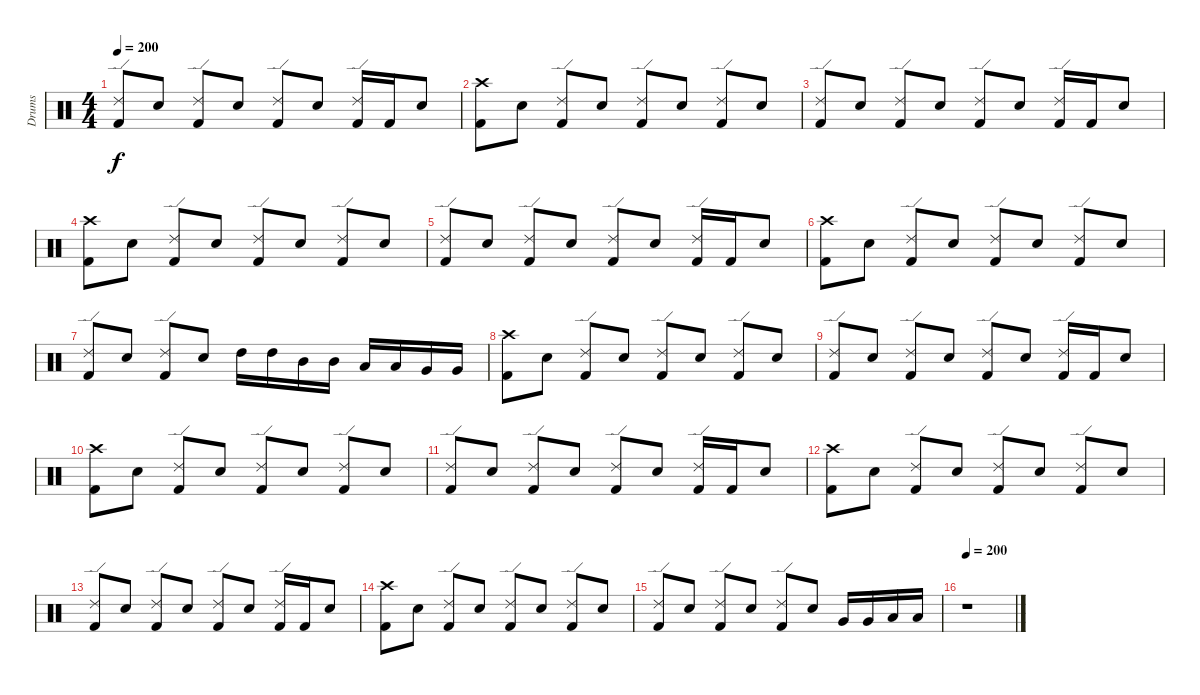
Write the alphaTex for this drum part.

\track ("Drums" "Drums") {instrument percussion}
\staff {score}
\articulation defaults
\ts (4 4)
\tempo 200
\clef neutral
\ks c
("Ride (edge) 2" "Kick (hit) 2").8{dy f} "Electric Snare (hit)".8 ("Ride (edge) 2" "Kick (hit) 2").8 "Electric Snare (hit)".8 ("Ride (edge) 2" "Kick (hit) 2").8 "Electric Snare (hit)".8 ("Ride (edge) 2" "Kick (hit) 2").16 "Kick (hit) 2".16 "Electric Snare (hit)".8 |
("Crash high (hit)" "Kick (hit) 2").8 "Electric Snare (hit)".8 ("Ride (edge) 2" "Kick (hit) 2").8 "Electric Snare (hit)".8 ("Ride (edge) 2" "Kick (hit) 2").8 "Electric Snare (hit)".8 ("Ride (edge) 2" "Kick (hit) 2").8 "Electric Snare (hit)".8 |
("Ride (edge) 2" "Kick (hit) 2").8 "Electric Snare (hit)".8 ("Ride (edge) 2" "Kick (hit) 2").8 "Electric Snare (hit)".8 ("Ride (edge) 2" "Kick (hit) 2").8 "Electric Snare (hit)".8 ("Ride (edge) 2" "Kick (hit) 2").16 "Kick (hit) 2".16 "Electric Snare (hit)".8 |
("Crash high (hit)" "Kick (hit) 2").8 "Electric Snare (hit)".8 ("Ride (edge) 2" "Kick (hit) 2").8 "Electric Snare (hit)".8 ("Ride (edge) 2" "Kick (hit) 2").8 "Electric Snare (hit)".8 ("Ride (edge) 2" "Kick (hit) 2").8 "Electric Snare (hit)".8 |
("Ride (edge) 2" "Kick (hit) 2").8 "Electric Snare (hit)".8 ("Ride (edge) 2" "Kick (hit) 2").8 "Electric Snare (hit)".8 ("Ride (edge) 2" "Kick (hit) 2").8 "Electric Snare (hit)".8 ("Ride (edge) 2" "Kick (hit) 2").16 "Kick (hit) 2".16 "Electric Snare (hit)".8 |
("Crash high (hit)" "Kick (hit) 2").8 "Electric Snare (hit)".8 ("Ride (edge) 2" "Kick (hit) 2").8 "Electric Snare (hit)".8 ("Ride (edge) 2" "Kick (hit) 2").8 "Electric Snare (hit)".8 ("Ride (edge) 2" "Kick (hit) 2").8 "Electric Snare (hit)".8 |
("Ride (edge) 2" "Kick (hit) 2").8 "Electric Snare (hit)".8 ("Ride (edge) 2" "Kick (hit) 2").8 "Electric Snare (hit)".8 "High Tom (hit)".16 "High Tom (hit)".16 "Mid Tom (hit)".16 "Mid Tom (hit)".16 "Low Tom (hit)".16 "Low Tom (hit)".16 "Very Low Tom (hit)".16 "Very Low Tom (hit)".16 |
("Crash high (hit)" "Kick (hit) 2").8 "Electric Snare (hit)".8 ("Ride (edge) 2" "Kick (hit) 2").8 "Electric Snare (hit)".8 ("Ride (edge) 2" "Kick (hit) 2").8 "Electric Snare (hit)".8 ("Ride (edge) 2" "Kick (hit) 2").8 "Electric Snare (hit)".8 |
("Ride (edge) 2" "Kick (hit) 2").8 "Electric Snare (hit)".8 ("Ride (edge) 2" "Kick (hit) 2").8 "Electric Snare (hit)".8 ("Ride (edge) 2" "Kick (hit) 2").8 "Electric Snare (hit)".8 ("Ride (edge) 2" "Kick (hit) 2").16 "Kick (hit) 2".16 "Electric Snare (hit)".8 |
("Crash high (hit)" "Kick (hit) 2").8 "Electric Snare (hit)".8 ("Ride (edge) 2" "Kick (hit) 2").8 "Electric Snare (hit)".8 ("Ride (edge) 2" "Kick (hit) 2").8 "Electric Snare (hit)".8 ("Ride (edge) 2" "Kick (hit) 2").8 "Electric Snare (hit)".8 |
("Ride (edge) 2" "Kick (hit) 2").8 "Electric Snare (hit)".8 ("Ride (edge) 2" "Kick (hit) 2").8 "Electric Snare (hit)".8 ("Ride (edge) 2" "Kick (hit) 2").8 "Electric Snare (hit)".8 ("Ride (edge) 2" "Kick (hit) 2").16 "Kick (hit) 2".16 "Electric Snare (hit)".8 |
("Crash high (hit)" "Kick (hit) 2").8 "Electric Snare (hit)".8 ("Ride (edge) 2" "Kick (hit) 2").8 "Electric Snare (hit)".8 ("Ride (edge) 2" "Kick (hit) 2").8 "Electric Snare (hit)".8 ("Ride (edge) 2" "Kick (hit) 2").8 "Electric Snare (hit)".8 |
("Ride (edge) 2" "Kick (hit) 2").8 "Electric Snare (hit)".8 ("Ride (edge) 2" "Kick (hit) 2").8 "Electric Snare (hit)".8 ("Ride (edge) 2" "Kick (hit) 2").8 "Electric Snare (hit)".8 ("Ride (edge) 2" "Kick (hit) 2").16 "Kick (hit) 2".16 "Electric Snare (hit)".8 |
("Crash high (hit)" "Kick (hit) 2").8 "Electric Snare (hit)".8 ("Ride (edge) 2" "Kick (hit) 2").8 "Electric Snare (hit)".8 ("Ride (edge) 2" "Kick (hit) 2").8 "Electric Snare (hit)".8 ("Ride (edge) 2" "Kick (hit) 2").8 "Electric Snare (hit)".8 |
("Ride (edge) 2" "Kick (hit) 2").8 "Electric Snare (hit)".8 ("Ride (edge) 2" "Kick (hit) 2").8 "Electric Snare (hit)".8 ("Ride (edge) 2" "Kick (hit) 2").8 "Electric Snare (hit)".8 "Very Low Tom (hit)".16 "Very Low Tom (hit)".16 "Low Floor Tom (hit)".16 "Low Floor Tom (hit)".16 |
\tempo 200
r.1
